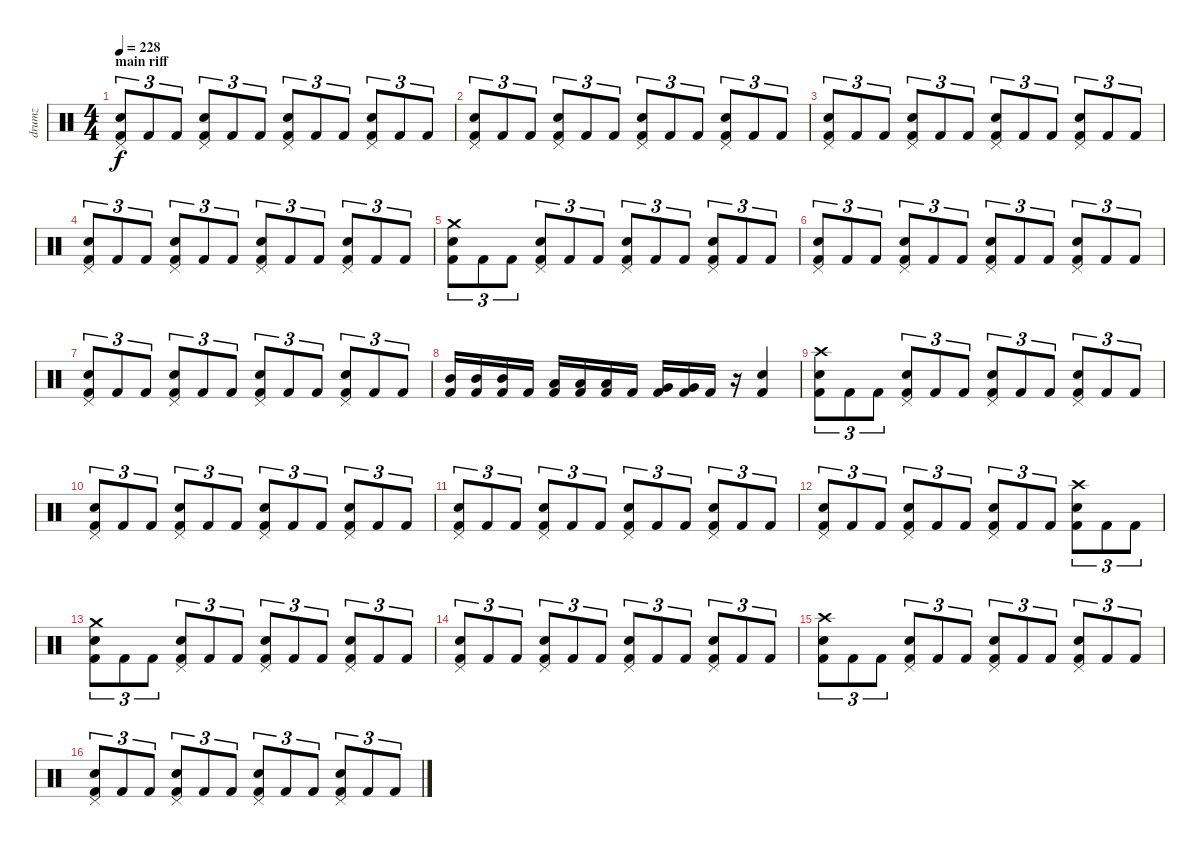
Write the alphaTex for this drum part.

\track ("drumz" "drumz") {instrument percussion}
\staff {score}
\articulation defaults
\ts (4 4)
\section ("" "main riff")
\tempo 228
\clef neutral
\ks c
("Pedal Hi-Hat (hit)" "Snare (hit) 2" "Kick (hit) 2").8{tu (3 2) dy f} "Kick (hit) 2".8{tu (3 2)} "Kick (hit) 2".8{tu (3 2)} ("Pedal Hi-Hat (hit)" "Snare (hit) 2" "Kick (hit) 2").8{tu (3 2)} "Kick (hit) 2".8{tu (3 2)} "Kick (hit) 2".8{tu (3 2)} ("Pedal Hi-Hat (hit)" "Snare (hit) 2" "Kick (hit) 2").8{tu (3 2)} "Kick (hit) 2".8{tu (3 2)} "Kick (hit) 2".8{tu (3 2)} ("Pedal Hi-Hat (hit)" "Snare (hit) 2" "Kick (hit) 2").8{tu (3 2)} "Kick (hit) 2".8{tu (3 2)} "Kick (hit) 2".8{tu (3 2)} |
("Pedal Hi-Hat (hit)" "Snare (hit) 2" "Kick (hit) 2").8{tu (3 2)} "Kick (hit) 2".8{tu (3 2)} "Kick (hit) 2".8{tu (3 2)} ("Pedal Hi-Hat (hit)" "Snare (hit) 2" "Kick (hit) 2").8{tu (3 2)} "Kick (hit) 2".8{tu (3 2)} "Kick (hit) 2".8{tu (3 2)} ("Pedal Hi-Hat (hit)" "Snare (hit) 2" "Kick (hit) 2").8{tu (3 2)} "Kick (hit) 2".8{tu (3 2)} "Kick (hit) 2".8{tu (3 2)} ("Pedal Hi-Hat (hit)" "Snare (hit) 2" "Kick (hit) 2").8{tu (3 2)} "Kick (hit) 2".8{tu (3 2)} "Kick (hit) 2".8{tu (3 2)} |
("Pedal Hi-Hat (hit)" "Snare (hit) 2" "Kick (hit) 2").8{tu (3 2)} "Kick (hit) 2".8{tu (3 2)} "Kick (hit) 2".8{tu (3 2)} ("Pedal Hi-Hat (hit)" "Snare (hit) 2" "Kick (hit) 2").8{tu (3 2)} "Kick (hit) 2".8{tu (3 2)} "Kick (hit) 2".8{tu (3 2)} ("Pedal Hi-Hat (hit)" "Snare (hit) 2" "Kick (hit) 2").8{tu (3 2)} "Kick (hit) 2".8{tu (3 2)} "Kick (hit) 2".8{tu (3 2)} ("Pedal Hi-Hat (hit)" "Snare (hit) 2" "Kick (hit) 2").8{tu (3 2)} "Kick (hit) 2".8{tu (3 2)} "Kick (hit) 2".8{tu (3 2)} |
("Pedal Hi-Hat (hit)" "Snare (hit) 2" "Kick (hit) 2").8{tu (3 2)} "Kick (hit) 2".8{tu (3 2)} "Kick (hit) 2".8{tu (3 2)} ("Pedal Hi-Hat (hit)" "Snare (hit) 2" "Kick (hit) 2").8{tu (3 2)} "Kick (hit) 2".8{tu (3 2)} "Kick (hit) 2".8{tu (3 2)} ("Pedal Hi-Hat (hit)" "Snare (hit) 2" "Kick (hit) 2").8{tu (3 2)} "Kick (hit) 2".8{tu (3 2)} "Kick (hit) 2".8{tu (3 2)} ("Pedal Hi-Hat (hit)" "Snare (hit) 2" "Kick (hit) 2").8{tu (3 2)} "Kick (hit) 2".8{tu (3 2)} "Kick (hit) 2".8{tu (3 2)} |
("Crash medium (hit)" "Snare (hit) 2" "Kick (hit) 2").8{tu (3 2)} "Kick (hit) 2".8{tu (3 2)} "Kick (hit) 2".8{tu (3 2)} ("Pedal Hi-Hat (hit)" "Snare (hit) 2" "Kick (hit) 2").8{tu (3 2)} "Kick (hit) 2".8{tu (3 2)} "Kick (hit) 2".8{tu (3 2)} ("Pedal Hi-Hat (hit)" "Snare (hit) 2" "Kick (hit) 2").8{tu (3 2)} "Kick (hit) 2".8{tu (3 2)} "Kick (hit) 2".8{tu (3 2)} ("Pedal Hi-Hat (hit)" "Snare (hit) 2" "Kick (hit) 2").8{tu (3 2)} "Kick (hit) 2".8{tu (3 2)} "Kick (hit) 2".8{tu (3 2)} |
("Pedal Hi-Hat (hit)" "Snare (hit) 2" "Kick (hit) 2").8{tu (3 2)} "Kick (hit) 2".8{tu (3 2)} "Kick (hit) 2".8{tu (3 2)} ("Pedal Hi-Hat (hit)" "Snare (hit) 2" "Kick (hit) 2").8{tu (3 2)} "Kick (hit) 2".8{tu (3 2)} "Kick (hit) 2".8{tu (3 2)} ("Pedal Hi-Hat (hit)" "Snare (hit) 2" "Kick (hit) 2").8{tu (3 2)} "Kick (hit) 2".8{tu (3 2)} "Kick (hit) 2".8{tu (3 2)} ("Pedal Hi-Hat (hit)" "Snare (hit) 2" "Kick (hit) 2").8{tu (3 2)} "Kick (hit) 2".8{tu (3 2)} "Kick (hit) 2".8{tu (3 2)} |
("Pedal Hi-Hat (hit)" "Snare (hit) 2" "Kick (hit) 2").8{tu (3 2)} "Kick (hit) 2".8{tu (3 2)} "Kick (hit) 2".8{tu (3 2)} ("Pedal Hi-Hat (hit)" "Snare (hit) 2" "Kick (hit) 2").8{tu (3 2)} "Kick (hit) 2".8{tu (3 2)} "Kick (hit) 2".8{tu (3 2)} ("Pedal Hi-Hat (hit)" "Snare (hit) 2" "Kick (hit) 2").8{tu (3 2)} "Kick (hit) 2".8{tu (3 2)} "Kick (hit) 2".8{tu (3 2)} ("Pedal Hi-Hat (hit)" "Snare (hit) 2" "Kick (hit) 2").8{tu (3 2)} "Kick (hit) 2".8{tu (3 2)} "Kick (hit) 2".8{tu (3 2)} |
("Mid Tom (hit)" "Kick (hit) 2").16 ("Mid Tom (hit)" "Kick (hit) 2").16 ("Mid Tom (hit)" "Kick (hit) 2").16 "Kick (hit) 2".16 ("Low Tom (hit)" "Kick (hit) 2").16 ("Low Tom (hit)" "Kick (hit) 2").16 ("Low Tom (hit)" "Kick (hit) 2").16 "Kick (hit) 2".16 ("Very Low Tom (hit)" "Kick (hit) 2").16 ("Very Low Tom (hit)" "Kick (hit) 2").16 "Kick (hit) 2".16 r.16 ("Snare (hit) 2" "Kick (hit) 2").4 |
("Crash high (hit)" "Snare (hit) 2" "Kick (hit) 2").8{tu (3 2)} "Kick (hit) 2".8{tu (3 2)} "Kick (hit) 2".8{tu (3 2)} ("Pedal Hi-Hat (hit)" "Snare (hit) 2" "Kick (hit) 2").8{tu (3 2)} "Kick (hit) 2".8{tu (3 2)} "Kick (hit) 2".8{tu (3 2)} ("Pedal Hi-Hat (hit)" "Snare (hit) 2" "Kick (hit) 2").8{tu (3 2)} "Kick (hit) 2".8{tu (3 2)} "Kick (hit) 2".8{tu (3 2)} ("Pedal Hi-Hat (hit)" "Snare (hit) 2" "Kick (hit) 2").8{tu (3 2)} "Kick (hit) 2".8{tu (3 2)} "Kick (hit) 2".8{tu (3 2)} |
("Pedal Hi-Hat (hit)" "Snare (hit) 2" "Kick (hit) 2").8{tu (3 2)} "Kick (hit) 2".8{tu (3 2)} "Kick (hit) 2".8{tu (3 2)} ("Pedal Hi-Hat (hit)" "Snare (hit) 2" "Kick (hit) 2").8{tu (3 2)} "Kick (hit) 2".8{tu (3 2)} "Kick (hit) 2".8{tu (3 2)} ("Pedal Hi-Hat (hit)" "Snare (hit) 2" "Kick (hit) 2").8{tu (3 2)} "Kick (hit) 2".8{tu (3 2)} "Kick (hit) 2".8{tu (3 2)} ("Pedal Hi-Hat (hit)" "Snare (hit) 2" "Kick (hit) 2").8{tu (3 2)} "Kick (hit) 2".8{tu (3 2)} "Kick (hit) 2".8{tu (3 2)} |
("Pedal Hi-Hat (hit)" "Snare (hit) 2" "Kick (hit) 2").8{tu (3 2)} "Kick (hit) 2".8{tu (3 2)} "Kick (hit) 2".8{tu (3 2)} ("Pedal Hi-Hat (hit)" "Snare (hit) 2" "Kick (hit) 2").8{tu (3 2)} "Kick (hit) 2".8{tu (3 2)} "Kick (hit) 2".8{tu (3 2)} ("Pedal Hi-Hat (hit)" "Snare (hit) 2" "Kick (hit) 2").8{tu (3 2)} "Kick (hit) 2".8{tu (3 2)} "Kick (hit) 2".8{tu (3 2)} ("Pedal Hi-Hat (hit)" "Snare (hit) 2" "Kick (hit) 2").8{tu (3 2)} "Kick (hit) 2".8{tu (3 2)} "Kick (hit) 2".8{tu (3 2)} |
("Pedal Hi-Hat (hit)" "Snare (hit) 2" "Kick (hit) 2").8{tu (3 2)} "Kick (hit) 2".8{tu (3 2)} "Kick (hit) 2".8{tu (3 2)} ("Pedal Hi-Hat (hit)" "Snare (hit) 2" "Kick (hit) 2").8{tu (3 2)} "Kick (hit) 2".8{tu (3 2)} "Kick (hit) 2".8{tu (3 2)} ("Pedal Hi-Hat (hit)" "Snare (hit) 2" "Kick (hit) 2").8{tu (3 2)} "Kick (hit) 2".8{tu (3 2)} "Kick (hit) 2".8{tu (3 2)} ("Crash high (hit)" "Snare (hit) 2" "Kick (hit) 2").8{tu (3 2)} "Kick (hit) 2".8{tu (3 2)} "Kick (hit) 2".8{tu (3 2)} |
("Crash medium (hit)" "Snare (hit) 2" "Kick (hit) 2").8{tu (3 2)} "Kick (hit) 2".8{tu (3 2)} "Kick (hit) 2".8{tu (3 2)} ("Pedal Hi-Hat (hit)" "Snare (hit) 2" "Kick (hit) 2").8{tu (3 2)} "Kick (hit) 2".8{tu (3 2)} "Kick (hit) 2".8{tu (3 2)} ("Pedal Hi-Hat (hit)" "Snare (hit) 2" "Kick (hit) 2").8{tu (3 2)} "Kick (hit) 2".8{tu (3 2)} "Kick (hit) 2".8{tu (3 2)} ("Pedal Hi-Hat (hit)" "Snare (hit) 2" "Kick (hit) 2").8{tu (3 2)} "Kick (hit) 2".8{tu (3 2)} "Kick (hit) 2".8{tu (3 2)} |
("Pedal Hi-Hat (hit)" "Snare (hit) 2" "Kick (hit) 2").8{tu (3 2)} "Kick (hit) 2".8{tu (3 2)} "Kick (hit) 2".8{tu (3 2)} ("Pedal Hi-Hat (hit)" "Snare (hit) 2" "Kick (hit) 2").8{tu (3 2)} "Kick (hit) 2".8{tu (3 2)} "Kick (hit) 2".8{tu (3 2)} ("Pedal Hi-Hat (hit)" "Snare (hit) 2" "Kick (hit) 2").8{tu (3 2)} "Kick (hit) 2".8{tu (3 2)} "Kick (hit) 2".8{tu (3 2)} ("Pedal Hi-Hat (hit)" "Snare (hit) 2" "Kick (hit) 2").8{tu (3 2)} "Kick (hit) 2".8{tu (3 2)} "Kick (hit) 2".8{tu (3 2)} |
("Crash high (hit)" "Snare (hit) 2" "Kick (hit) 2").8{tu (3 2)} "Kick (hit) 2".8{tu (3 2)} "Kick (hit) 2".8{tu (3 2)} ("Pedal Hi-Hat (hit)" "Snare (hit) 2" "Kick (hit) 2").8{tu (3 2)} "Kick (hit) 2".8{tu (3 2)} "Kick (hit) 2".8{tu (3 2)} ("Pedal Hi-Hat (hit)" "Snare (hit) 2" "Kick (hit) 2").8{tu (3 2)} "Kick (hit) 2".8{tu (3 2)} "Kick (hit) 2".8{tu (3 2)} ("Pedal Hi-Hat (hit)" "Snare (hit) 2" "Kick (hit) 2").8{tu (3 2)} "Kick (hit) 2".8{tu (3 2)} "Kick (hit) 2".8{tu (3 2)} |
("Pedal Hi-Hat (hit)" "Snare (hit) 2" "Kick (hit) 2").8{tu (3 2)} "Kick (hit) 2".8{tu (3 2)} "Kick (hit) 2".8{tu (3 2)} ("Pedal Hi-Hat (hit)" "Snare (hit) 2" "Kick (hit) 2").8{tu (3 2)} "Kick (hit) 2".8{tu (3 2)} "Kick (hit) 2".8{tu (3 2)} ("Pedal Hi-Hat (hit)" "Snare (hit) 2" "Kick (hit) 2").8{tu (3 2)} "Kick (hit) 2".8{tu (3 2)} "Kick (hit) 2".8{tu (3 2)} ("Pedal Hi-Hat (hit)" "Snare (hit) 2" "Kick (hit) 2").8{tu (3 2)} "Kick (hit) 2".8{tu (3 2)} "Kick (hit) 2".8{tu (3 2)}
